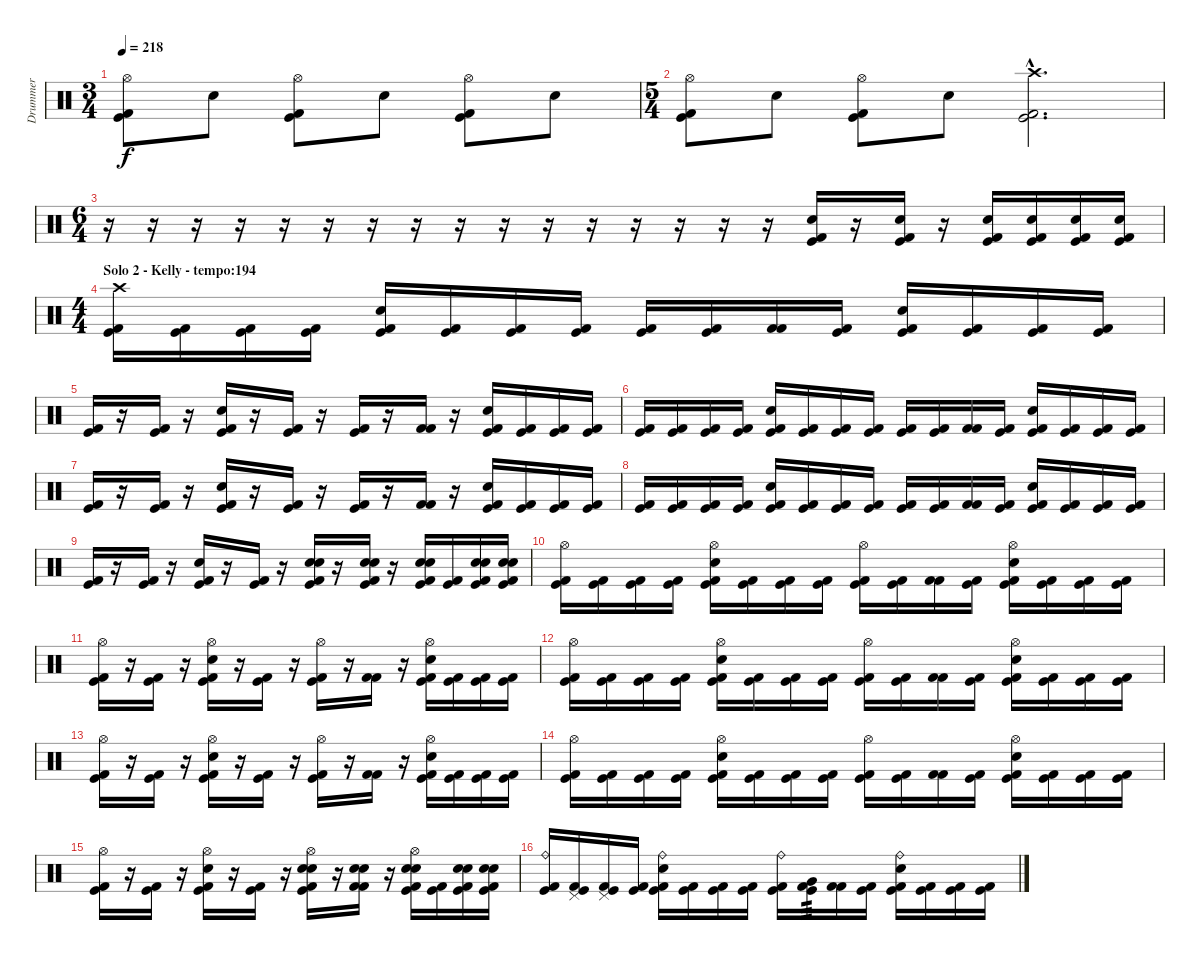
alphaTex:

\track ("Drummer" "Drummer") {instrument percussion}
\staff {score}
\articulation defaults
\ts (3 4)
\tempo 218
\clef neutral
\ks c
("Hi-Hat (open)" "Kick (hit)" "Kick (hit) 2").8{dy f} "Snare (hit) 2".8 ("Hi-Hat (open)" "Kick (hit)" "Kick (hit) 2").8 "Snare (hit) 2".8 ("Hi-Hat (open)" "Kick (hit)" "Kick (hit) 2").8 "Snare (hit) 2".8 |
\ts (5 4)
("Hi-Hat (open)" "Kick (hit)" "Kick (hit) 2").8 "Snare (hit) 2".8 ("Hi-Hat (open)" "Kick (hit)" "Kick (hit) 2").8 "Snare (hit) 2".8 ("Kick (hit)"{hac} "Crash high (hit)"{hac} "Kick (hit) 2"{hac}).2{d} |
\ts (6 4)
r.16 r.16 r.16 r.16 r.16 r.16 r.16 r.16 r.16 r.16 r.16 r.16 r.16 r.16 r.16 r.16 ("Snare (hit) 2" "Kick (hit) 2" "Kick (hit)").16 r.16 ("Snare (hit) 2" "Kick (hit) 2" "Kick (hit)").16 r.16 ("Snare (hit) 2" "Kick (hit) 2" "Kick (hit)").16 ("Snare (hit) 2" "Kick (hit) 2" "Kick (hit)").16 ("Snare (hit) 2" "Kick (hit) 2" "Kick (hit)").16 ("Snare (hit) 2" "Kick (hit) 2" "Kick (hit)").16 |
\ts (4 4)
\section ("" "Solo 2 - Kelly - tempo:194")
("Crash high (hit)" "Kick (hit)" "Kick (hit) 2").16 ("Kick (hit)" "Kick (hit) 2").16 ("Kick (hit)" "Kick (hit) 2").16 ("Kick (hit)" "Kick (hit) 2").16 ("Snare (hit) 2" "Kick (hit)" "Kick (hit) 2").16 ("Kick (hit)" "Kick (hit) 2").16 ("Kick (hit)" "Kick (hit) 2").16 ("Kick (hit)" "Kick (hit) 2").16 ("Kick (hit)" "Kick (hit) 2").16 ("Kick (hit)" "Kick (hit) 2").16 ("Kick (hit) 2" "Kick (hit) 2").16 ("Kick (hit)" "Kick (hit) 2").16 ("Snare (hit) 2" "Kick (hit)" "Kick (hit) 2").16 ("Kick (hit)" "Kick (hit) 2").16 ("Kick (hit)" "Kick (hit) 2").16 ("Kick (hit)" "Kick (hit) 2").16 |
("Kick (hit)" "Kick (hit) 2").16 r.16 ("Kick (hit)" "Kick (hit) 2").16 r.16 ("Snare (hit) 2" "Kick (hit)" "Kick (hit) 2").16 r.16 ("Kick (hit)" "Kick (hit) 2").16 r.16 ("Kick (hit)" "Kick (hit) 2").16 r.16 ("Kick (hit) 2" "Kick (hit) 2").16 r.16 ("Snare (hit) 2" "Kick (hit)" "Kick (hit) 2").16 ("Kick (hit)" "Kick (hit) 2").16 ("Kick (hit)" "Kick (hit) 2").16 ("Kick (hit)" "Kick (hit) 2").16 |
("Kick (hit)" "Kick (hit) 2").16 ("Kick (hit)" "Kick (hit) 2").16 ("Kick (hit)" "Kick (hit) 2").16 ("Kick (hit)" "Kick (hit) 2").16 ("Snare (hit) 2" "Kick (hit)" "Kick (hit) 2").16 ("Kick (hit)" "Kick (hit) 2").16 ("Kick (hit)" "Kick (hit) 2").16 ("Kick (hit)" "Kick (hit) 2").16 ("Kick (hit)" "Kick (hit) 2").16 ("Kick (hit)" "Kick (hit) 2").16 ("Kick (hit) 2" "Kick (hit) 2").16 ("Kick (hit)" "Kick (hit) 2").16 ("Snare (hit) 2" "Kick (hit)" "Kick (hit) 2").16 ("Kick (hit)" "Kick (hit) 2").16 ("Kick (hit)" "Kick (hit) 2").16 ("Kick (hit)" "Kick (hit) 2").16 |
("Kick (hit)" "Kick (hit) 2").16 r.16 ("Kick (hit)" "Kick (hit) 2").16 r.16 ("Snare (hit) 2" "Kick (hit)" "Kick (hit) 2").16 r.16 ("Kick (hit)" "Kick (hit) 2").16 r.16 ("Kick (hit)" "Kick (hit) 2").16 r.16 ("Kick (hit) 2" "Kick (hit) 2").16 r.16 ("Snare (hit) 2" "Kick (hit)" "Kick (hit) 2").16 ("Kick (hit)" "Kick (hit) 2").16 ("Kick (hit)" "Kick (hit) 2").16 ("Kick (hit)" "Kick (hit) 2").16 |
("Kick (hit)" "Kick (hit) 2").16 ("Kick (hit)" "Kick (hit) 2").16 ("Kick (hit)" "Kick (hit) 2").16 ("Kick (hit)" "Kick (hit) 2").16 ("Snare (hit) 2" "Kick (hit)" "Kick (hit) 2").16 ("Kick (hit)" "Kick (hit) 2").16 ("Kick (hit)" "Kick (hit) 2").16 ("Kick (hit)" "Kick (hit) 2").16 ("Kick (hit)" "Kick (hit) 2").16 ("Kick (hit)" "Kick (hit) 2").16 ("Kick (hit) 2" "Kick (hit) 2").16 ("Kick (hit)" "Kick (hit) 2").16 ("Snare (hit) 2" "Kick (hit)" "Kick (hit) 2").16 ("Kick (hit)" "Kick (hit) 2").16 ("Kick (hit)" "Kick (hit) 2").16 ("Kick (hit)" "Kick (hit) 2").16 |
("Kick (hit)" "Kick (hit) 2").16 r.16 ("Kick (hit)" "Kick (hit) 2").16 r.16 ("Snare (hit) 2" "Kick (hit)" "Kick (hit) 2").16 r.16 ("Kick (hit)" "Kick (hit) 2").16 r.16 ("Electric Snare (hit)" "Snare (hit) 2" "Kick (hit)" "Kick (hit) 2").16 r.16 ("Electric Snare (hit)" "Snare (hit) 2" "Kick (hit)" "Kick (hit) 2").16 r.16 ("Electric Snare (hit)" "Snare (hit) 2" "Kick (hit)" "Kick (hit) 2").16 ("Kick (hit)" "Kick (hit) 2").16 ("Electric Snare (hit)" "Snare (hit) 2" "Kick (hit)" "Kick (hit) 2").16 ("Electric Snare (hit)" "Snare (hit) 2" "Kick (hit)" "Kick (hit) 2").16 |
("Hi-Hat (open)" "Kick (hit)" "Kick (hit) 2").16 ("Kick (hit)" "Kick (hit) 2").16 ("Kick (hit)" "Kick (hit) 2").16 ("Kick (hit)" "Kick (hit) 2").16 ("Hi-Hat (open)" "Snare (hit) 2" "Kick (hit)" "Kick (hit) 2").16 ("Kick (hit)" "Kick (hit) 2").16 ("Kick (hit)" "Kick (hit) 2").16 ("Kick (hit)" "Kick (hit) 2").16 ("Hi-Hat (open)" "Kick (hit)" "Kick (hit) 2").16 ("Kick (hit)" "Kick (hit) 2").16 ("Kick (hit) 2" "Kick (hit) 2").16 ("Kick (hit)" "Kick (hit) 2").16 ("Hi-Hat (open)" "Snare (hit) 2" "Kick (hit)" "Kick (hit) 2").16 ("Kick (hit)" "Kick (hit) 2").16 ("Kick (hit)" "Kick (hit) 2").16 ("Kick (hit)" "Kick (hit) 2").16 |
("Hi-Hat (open)" "Kick (hit)" "Kick (hit) 2").16 r.16 ("Kick (hit)" "Kick (hit) 2").16 r.16 ("Hi-Hat (open)" "Snare (hit) 2" "Kick (hit)" "Kick (hit) 2").16 r.16 ("Kick (hit)" "Kick (hit) 2").16 r.16 ("Hi-Hat (open)" "Kick (hit)" "Kick (hit) 2").16 r.16 ("Kick (hit) 2" "Kick (hit) 2").16 r.16 ("Hi-Hat (open)" "Snare (hit) 2" "Kick (hit)" "Kick (hit) 2").16 ("Kick (hit)" "Kick (hit) 2").16 ("Kick (hit)" "Kick (hit) 2").16 ("Kick (hit)" "Kick (hit) 2").16 |
("Hi-Hat (open)" "Kick (hit)" "Kick (hit) 2").16 ("Kick (hit)" "Kick (hit) 2").16 ("Kick (hit)" "Kick (hit) 2").16 ("Kick (hit)" "Kick (hit) 2").16 ("Hi-Hat (open)" "Snare (hit) 2" "Kick (hit)" "Kick (hit) 2").16 ("Kick (hit)" "Kick (hit) 2").16 ("Kick (hit)" "Kick (hit) 2").16 ("Kick (hit)" "Kick (hit) 2").16 ("Hi-Hat (open)" "Kick (hit)" "Kick (hit) 2").16 ("Kick (hit)" "Kick (hit) 2").16 ("Kick (hit) 2" "Kick (hit) 2").16 ("Kick (hit)" "Kick (hit) 2").16 ("Hi-Hat (open)" "Snare (hit) 2" "Kick (hit)" "Kick (hit) 2").16 ("Kick (hit)" "Kick (hit) 2").16 ("Kick (hit)" "Kick (hit) 2").16 ("Kick (hit)" "Kick (hit) 2").16 |
("Hi-Hat (open)" "Kick (hit)" "Kick (hit) 2").16 r.16 ("Kick (hit)" "Kick (hit) 2").16 r.16 ("Hi-Hat (open)" "Snare (hit) 2" "Kick (hit)" "Kick (hit) 2").16 r.16 ("Kick (hit)" "Kick (hit) 2").16 r.16 ("Hi-Hat (open)" "Kick (hit)" "Kick (hit) 2").16 r.16 ("Kick (hit) 2" "Kick (hit) 2").16 r.16 ("Hi-Hat (open)" "Snare (hit) 2" "Kick (hit)" "Kick (hit) 2").16 ("Kick (hit)" "Kick (hit) 2").16 ("Kick (hit)" "Kick (hit) 2").16 ("Kick (hit)" "Kick (hit) 2").16 |
("Hi-Hat (open)" "Kick (hit)" "Kick (hit) 2").16 ("Kick (hit)" "Kick (hit) 2").16 ("Kick (hit)" "Kick (hit) 2").16 ("Kick (hit)" "Kick (hit) 2").16 ("Hi-Hat (open)" "Snare (hit) 2" "Kick (hit)" "Kick (hit) 2").16 ("Kick (hit)" "Kick (hit) 2").16 ("Kick (hit)" "Kick (hit) 2").16 ("Kick (hit)" "Kick (hit) 2").16 ("Hi-Hat (open)" "Kick (hit)" "Kick (hit) 2").16 ("Kick (hit)" "Kick (hit) 2").16 ("Kick (hit) 2" "Kick (hit) 2").16 ("Kick (hit)" "Kick (hit) 2").16 ("Hi-Hat (open)" "Snare (hit) 2" "Kick (hit)" "Kick (hit) 2").16 ("Kick (hit)" "Kick (hit) 2").16 ("Kick (hit)" "Kick (hit) 2").16 ("Kick (hit)" "Kick (hit) 2").16 |
("Hi-Hat (open)" "Kick (hit)" "Kick (hit) 2").16 r.16 ("Kick (hit)" "Kick (hit) 2").16 r.16 ("Hi-Hat (open)" "Snare (hit) 2" "Kick (hit)" "Kick (hit) 2").16 r.16 ("Kick (hit)" "Kick (hit) 2").16 r.16 ("Hi-Hat (open)" "Electric Snare (hit)" "Snare (hit) 2" "Kick (hit)" "Kick (hit) 2").16 r.16 ("Electric Snare (hit)" "Snare (hit) 2" "Kick (hit) 2" "Kick (hit) 2").16 r.16 ("Hi-Hat (open)" "Electric Snare (hit)" "Snare (hit) 2" "Kick (hit)" "Kick (hit) 2").16 ("Kick (hit)" "Kick (hit) 2").16 ("Electric Snare (hit)" "Snare (hit) 2" "Kick (hit)" "Kick (hit) 2").16 ("Electric Snare (hit)" "Snare (hit) 2" "Kick (hit)" "Kick (hit) 2").16 |
("Ride (bell)" "Kick (hit)" "Kick (hit) 2").16 ("Pedal Hi-Hat (hit)" "Kick (hit)" "Kick (hit) 2").16 ("Pedal Hi-Hat (hit)" "Kick (hit)" "Kick (hit) 2").16 ("Kick (hit)" "Kick (hit) 2").16 ("Ride (bell)" "Snare (hit) 2" "Kick (hit)" "Kick (hit) 2").16 ("Kick (hit)" "Kick (hit) 2").16 ("Kick (hit)" "Kick (hit) 2").16 ("Kick (hit)" "Kick (hit) 2").16 ("Ride (bell)" "Kick (hit)" "Kick (hit) 2").16 ("Very Low Tom (hit)" "Kick (hit)" "Kick (hit) 2").16{tp 3} ("Kick (hit) 2" "Kick (hit) 2").16 ("Kick (hit)" "Kick (hit) 2").16 ("Ride (bell)" "Snare (hit) 2" "Kick (hit)" "Kick (hit) 2").16 ("Kick (hit)" "Kick (hit) 2").16 ("Kick (hit)" "Kick (hit) 2").16 ("Kick (hit)" "Kick (hit) 2").16
